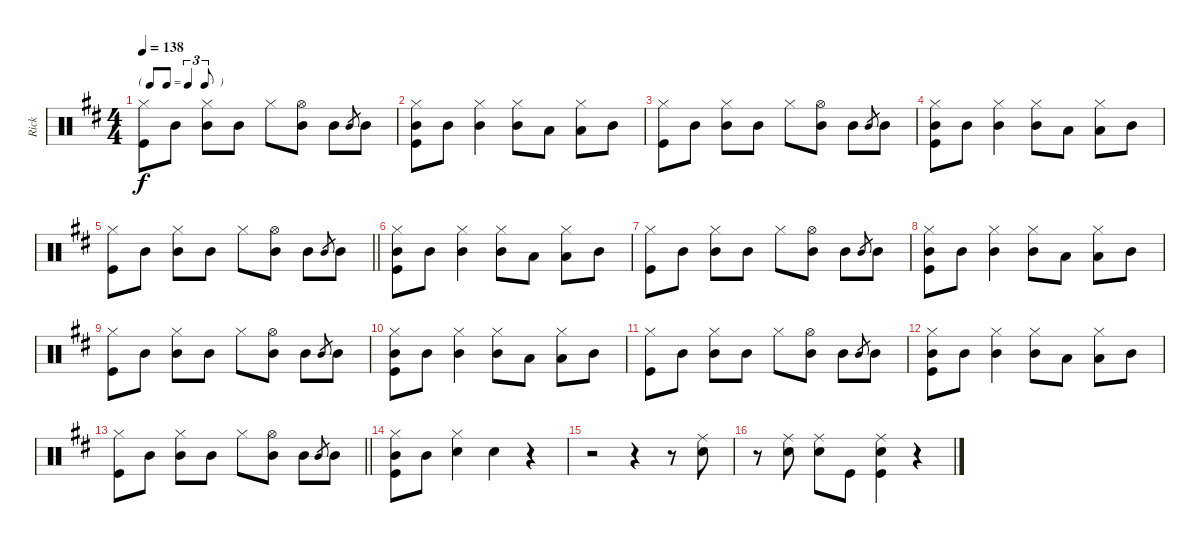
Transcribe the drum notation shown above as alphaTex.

\track ("Rick" "Rick") {instrument percussion}
\staff {score}
\articulation defaults
\ts (4 4)
\tf triplet8th
\tempo 138
\clef neutral
\ks d
("Hi-Hat (closed)" "Kick (hit)").8{dy f} "Mid Tom (hit)".8 ("Hi-Hat (closed)" "Mid Tom (hit)").8 "Mid Tom (hit)".8 "Hi-Hat (closed)".8 ("Hi-Hat (open)" "Mid Tom (hit)").8 "Mid Tom (hit)".8 "Mid Tom (hit)".8{gr} "Mid Tom (hit)".8 |
("Hi-Hat (closed)" "Mid Tom (hit)" "Kick (hit)").8 "Mid Tom (hit)".8 ("Hi-Hat (closed)" "Mid Tom (hit)").4 ("Hi-Hat (closed)" "Mid Tom (hit)").8 "Low Tom (hit)".8 ("Hi-Hat (closed)" "Low Tom (hit)").8 "Mid Tom (hit)".8 |
("Hi-Hat (closed)" "Kick (hit)").8 "Mid Tom (hit)".8 ("Hi-Hat (closed)" "Mid Tom (hit)").8 "Mid Tom (hit)".8 "Hi-Hat (closed)".8 ("Hi-Hat (open)" "Mid Tom (hit)").8 "Mid Tom (hit)".8 "Mid Tom (hit)".8{gr} "Mid Tom (hit)".8 |
("Hi-Hat (closed)" "Mid Tom (hit)" "Kick (hit)").8 "Mid Tom (hit)".8 ("Hi-Hat (closed)" "Mid Tom (hit)").4 ("Hi-Hat (closed)" "Mid Tom (hit)").8 "Low Tom (hit)".8 ("Hi-Hat (closed)" "Low Tom (hit)").8 "Mid Tom (hit)".8 |
\barLineRight lightlight
("Hi-Hat (closed)" "Kick (hit)").8 "Mid Tom (hit)".8 ("Hi-Hat (closed)" "Mid Tom (hit)").8 "Mid Tom (hit)".8 "Hi-Hat (closed)".8 ("Hi-Hat (open)" "Mid Tom (hit)").8 "Mid Tom (hit)".8 "Mid Tom (hit)".8{gr} "Mid Tom (hit)".8 |
("Hi-Hat (closed)" "Mid Tom (hit)" "Kick (hit)").8 "Mid Tom (hit)".8 ("Hi-Hat (closed)" "Mid Tom (hit)").4 ("Hi-Hat (closed)" "Mid Tom (hit)").8 "Low Tom (hit)".8 ("Hi-Hat (closed)" "Low Tom (hit)").8 "Mid Tom (hit)".8 |
("Hi-Hat (closed)" "Kick (hit)").8 "Mid Tom (hit)".8 ("Hi-Hat (closed)" "Mid Tom (hit)").8 "Mid Tom (hit)".8 "Hi-Hat (closed)".8 ("Hi-Hat (open)" "Mid Tom (hit)").8 "Mid Tom (hit)".8 "Mid Tom (hit)".8{gr} "Mid Tom (hit)".8 |
("Hi-Hat (closed)" "Mid Tom (hit)" "Kick (hit)").8 "Mid Tom (hit)".8 ("Hi-Hat (closed)" "Mid Tom (hit)").4 ("Hi-Hat (closed)" "Mid Tom (hit)").8 "Low Tom (hit)".8 ("Hi-Hat (closed)" "Low Tom (hit)").8 "Mid Tom (hit)".8 |
("Hi-Hat (closed)" "Kick (hit)").8 "Mid Tom (hit)".8 ("Hi-Hat (closed)" "Mid Tom (hit)").8 "Mid Tom (hit)".8 "Hi-Hat (closed)".8 ("Hi-Hat (open)" "Mid Tom (hit)").8 "Mid Tom (hit)".8 "Mid Tom (hit)".8{gr} "Mid Tom (hit)".8 |
("Hi-Hat (closed)" "Mid Tom (hit)" "Kick (hit)").8 "Mid Tom (hit)".8 ("Hi-Hat (closed)" "Mid Tom (hit)").4 ("Hi-Hat (closed)" "Mid Tom (hit)").8 "Low Tom (hit)".8 ("Hi-Hat (closed)" "Low Tom (hit)").8 "Mid Tom (hit)".8 |
("Hi-Hat (closed)" "Kick (hit)").8 "Mid Tom (hit)".8 ("Hi-Hat (closed)" "Mid Tom (hit)").8 "Mid Tom (hit)".8 "Hi-Hat (closed)".8 ("Hi-Hat (open)" "Mid Tom (hit)").8 "Mid Tom (hit)".8 "Mid Tom (hit)".8{gr} "Mid Tom (hit)".8 |
("Hi-Hat (closed)" "Mid Tom (hit)" "Kick (hit)").8 "Mid Tom (hit)".8 ("Hi-Hat (closed)" "Mid Tom (hit)").4 ("Hi-Hat (closed)" "Mid Tom (hit)").8 "Low Tom (hit)".8 ("Hi-Hat (closed)" "Low Tom (hit)").8 "Mid Tom (hit)".8 |
\barLineRight lightlight
("Hi-Hat (closed)" "Kick (hit)").8 "Mid Tom (hit)".8 ("Hi-Hat (closed)" "Mid Tom (hit)").8 "Mid Tom (hit)".8 "Hi-Hat (closed)".8 ("Hi-Hat (open)" "Mid Tom (hit)").8 "Mid Tom (hit)".8 "Mid Tom (hit)".8{gr} "Mid Tom (hit)".8 |
("Hi-Hat (closed)" "Mid Tom (hit)" "Kick (hit)").8 "Mid Tom (hit)".8 ("Hi-Hat (closed)" "Snare (hit) 2").4 "Snare (hit) 2".4 r.4 |
r.2 r.4 r.8 ("Ride (middle)" "Snare (hit) 2").8 |
r.8 ("Ride (middle)" "Snare (hit) 2").8 ("Ride (middle)" "Snare (hit) 2").8 "Kick (hit)".8 ("Ride (middle)" "Snare (hit) 2" "Kick (hit)").4 r.4
